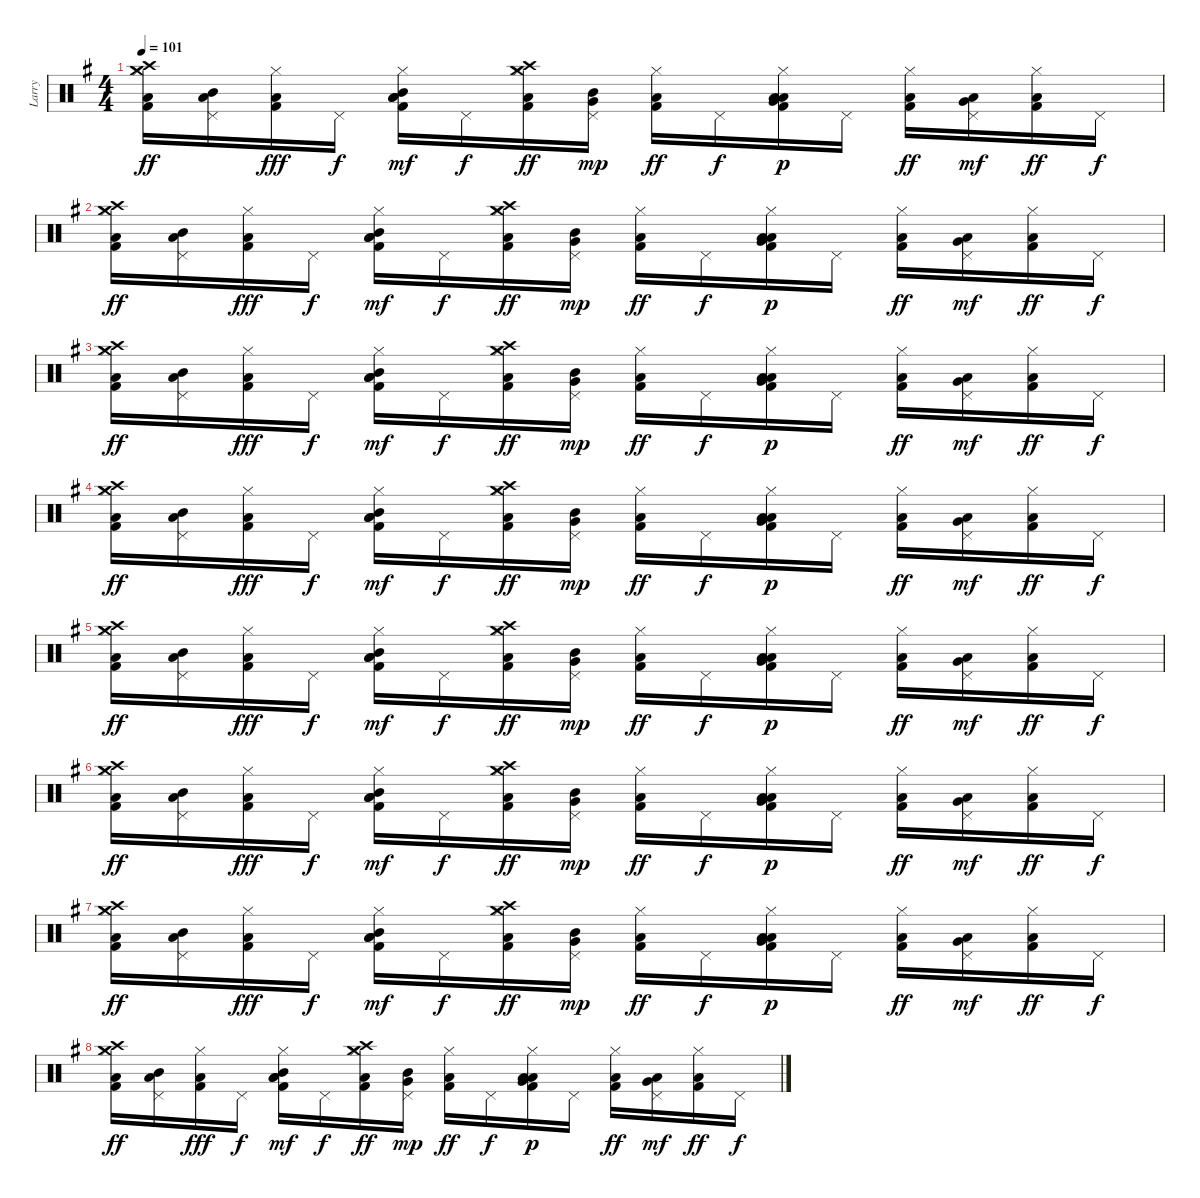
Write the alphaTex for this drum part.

\track ("Larry" "Larry") {instrument percussion}
\staff {score}
\articulation defaults
\ts (4 4)
\tempo 101
\clef neutral
\ks eminor
("Kick (hit) 2" "Low Floor Tom (hit)" "Crash high (hit)" "Crash medium (hit)" "Hi-Hat (closed)").16{dy ff} ("Low Tom (hit)" "Mid Tom (hit)" "Pedal Hi-Hat (hit)").16 ("Kick (hit) 2" "Low Floor Tom (hit)" "Hi-Hat (closed)").16{dy fff} "Pedal Hi-Hat (hit)".16{dy f} ("Kick (hit) 2" "Low Floor Tom (hit)" "Low Tom (hit)" "Mid Tom (hit)" "Hi-Hat (closed)").16{dy mf} "Pedal Hi-Hat (hit)".16{dy f} ("Kick (hit) 2" "Low Floor Tom (hit)" "Crash high (hit)" "Crash medium (hit)" "Hi-Hat (closed)").16{dy ff} ("Very Low Tom (hit)" "Mid Tom (hit)" "Pedal Hi-Hat (hit)").16{dy mp} ("Low Floor Tom (hit)" "Kick (hit) 2" "Hi-Hat (closed)").16{dy ff} "Pedal Hi-Hat (hit)".16{dy f} ("Low Floor Tom (hit)" "Kick (hit) 2" "Very Low Tom (hit)" "Low Tom (hit)" "Hi-Hat (closed)").16{dy p} "Pedal Hi-Hat (hit)".16 ("Low Floor Tom (hit)" "Kick (hit) 2" "Hi-Hat (closed)").16{dy ff} ("Very Low Tom (hit)" "Low Tom (hit)" "Pedal Hi-Hat (hit)").16{dy mf} ("Low Floor Tom (hit)" "Kick (hit) 2" "Hi-Hat (closed)").16{dy ff} "Pedal Hi-Hat (hit)".16{dy f} |
("Kick (hit) 2" "Low Floor Tom (hit)" "Crash high (hit)" "Crash medium (hit)" "Hi-Hat (closed)").16{dy ff} ("Low Tom (hit)" "Mid Tom (hit)" "Pedal Hi-Hat (hit)").16 ("Kick (hit) 2" "Low Floor Tom (hit)" "Hi-Hat (closed)").16{dy fff} "Pedal Hi-Hat (hit)".16{dy f} ("Kick (hit) 2" "Low Floor Tom (hit)" "Low Tom (hit)" "Mid Tom (hit)" "Hi-Hat (closed)").16{dy mf} "Pedal Hi-Hat (hit)".16{dy f} ("Kick (hit) 2" "Low Floor Tom (hit)" "Crash high (hit)" "Crash medium (hit)" "Hi-Hat (closed)").16{dy ff} ("Very Low Tom (hit)" "Mid Tom (hit)" "Pedal Hi-Hat (hit)").16{dy mp} ("Low Floor Tom (hit)" "Kick (hit) 2" "Hi-Hat (closed)").16{dy ff} "Pedal Hi-Hat (hit)".16{dy f} ("Low Floor Tom (hit)" "Kick (hit) 2" "Very Low Tom (hit)" "Low Tom (hit)" "Hi-Hat (closed)").16{dy p} "Pedal Hi-Hat (hit)".16 ("Low Floor Tom (hit)" "Kick (hit) 2" "Hi-Hat (closed)").16{dy ff} ("Very Low Tom (hit)" "Low Tom (hit)" "Pedal Hi-Hat (hit)").16{dy mf} ("Low Floor Tom (hit)" "Kick (hit) 2" "Hi-Hat (closed)").16{dy ff} "Pedal Hi-Hat (hit)".16{dy f} |
("Kick (hit) 2" "Low Floor Tom (hit)" "Crash high (hit)" "Crash medium (hit)" "Hi-Hat (closed)").16{dy ff} ("Low Tom (hit)" "Mid Tom (hit)" "Pedal Hi-Hat (hit)").16 ("Kick (hit) 2" "Low Floor Tom (hit)" "Hi-Hat (closed)").16{dy fff} "Pedal Hi-Hat (hit)".16{dy f} ("Kick (hit) 2" "Low Floor Tom (hit)" "Low Tom (hit)" "Mid Tom (hit)" "Hi-Hat (closed)").16{dy mf} "Pedal Hi-Hat (hit)".16{dy f} ("Kick (hit) 2" "Low Floor Tom (hit)" "Crash high (hit)" "Crash medium (hit)" "Hi-Hat (closed)").16{dy ff} ("Very Low Tom (hit)" "Mid Tom (hit)" "Pedal Hi-Hat (hit)").16{dy mp} ("Low Floor Tom (hit)" "Kick (hit) 2" "Hi-Hat (closed)").16{dy ff} "Pedal Hi-Hat (hit)".16{dy f} ("Low Floor Tom (hit)" "Kick (hit) 2" "Very Low Tom (hit)" "Low Tom (hit)" "Hi-Hat (closed)").16{dy p} "Pedal Hi-Hat (hit)".16 ("Low Floor Tom (hit)" "Kick (hit) 2" "Hi-Hat (closed)").16{dy ff} ("Very Low Tom (hit)" "Low Tom (hit)" "Pedal Hi-Hat (hit)").16{dy mf} ("Low Floor Tom (hit)" "Kick (hit) 2" "Hi-Hat (closed)").16{dy ff} "Pedal Hi-Hat (hit)".16{dy f} |
("Kick (hit) 2" "Low Floor Tom (hit)" "Crash high (hit)" "Crash medium (hit)" "Hi-Hat (closed)").16{dy ff} ("Low Tom (hit)" "Mid Tom (hit)" "Pedal Hi-Hat (hit)").16 ("Kick (hit) 2" "Low Floor Tom (hit)" "Hi-Hat (closed)").16{dy fff} "Pedal Hi-Hat (hit)".16{dy f} ("Kick (hit) 2" "Low Floor Tom (hit)" "Low Tom (hit)" "Mid Tom (hit)" "Hi-Hat (closed)").16{dy mf} "Pedal Hi-Hat (hit)".16{dy f} ("Kick (hit) 2" "Low Floor Tom (hit)" "Crash high (hit)" "Crash medium (hit)" "Hi-Hat (closed)").16{dy ff} ("Very Low Tom (hit)" "Mid Tom (hit)" "Pedal Hi-Hat (hit)").16{dy mp} ("Low Floor Tom (hit)" "Kick (hit) 2" "Hi-Hat (closed)").16{dy ff} "Pedal Hi-Hat (hit)".16{dy f} ("Low Floor Tom (hit)" "Kick (hit) 2" "Very Low Tom (hit)" "Low Tom (hit)" "Hi-Hat (closed)").16{dy p} "Pedal Hi-Hat (hit)".16 ("Low Floor Tom (hit)" "Kick (hit) 2" "Hi-Hat (closed)").16{dy ff} ("Very Low Tom (hit)" "Low Tom (hit)" "Pedal Hi-Hat (hit)").16{dy mf} ("Low Floor Tom (hit)" "Kick (hit) 2" "Hi-Hat (closed)").16{dy ff} "Pedal Hi-Hat (hit)".16{dy f} |
("Kick (hit) 2" "Low Floor Tom (hit)" "Crash high (hit)" "Crash medium (hit)" "Hi-Hat (closed)").16{dy ff} ("Low Tom (hit)" "Mid Tom (hit)" "Pedal Hi-Hat (hit)").16 ("Kick (hit) 2" "Low Floor Tom (hit)" "Hi-Hat (closed)").16{dy fff} "Pedal Hi-Hat (hit)".16{dy f} ("Kick (hit) 2" "Low Floor Tom (hit)" "Low Tom (hit)" "Mid Tom (hit)" "Hi-Hat (closed)").16{dy mf} "Pedal Hi-Hat (hit)".16{dy f} ("Kick (hit) 2" "Low Floor Tom (hit)" "Crash high (hit)" "Crash medium (hit)" "Hi-Hat (closed)").16{dy ff} ("Very Low Tom (hit)" "Mid Tom (hit)" "Pedal Hi-Hat (hit)").16{dy mp} ("Low Floor Tom (hit)" "Kick (hit) 2" "Hi-Hat (closed)").16{dy ff} "Pedal Hi-Hat (hit)".16{dy f} ("Low Floor Tom (hit)" "Kick (hit) 2" "Very Low Tom (hit)" "Low Tom (hit)" "Hi-Hat (closed)").16{dy p} "Pedal Hi-Hat (hit)".16 ("Low Floor Tom (hit)" "Kick (hit) 2" "Hi-Hat (closed)").16{dy ff} ("Very Low Tom (hit)" "Low Tom (hit)" "Pedal Hi-Hat (hit)").16{dy mf} ("Low Floor Tom (hit)" "Kick (hit) 2" "Hi-Hat (closed)").16{dy ff} "Pedal Hi-Hat (hit)".16{dy f} |
("Kick (hit) 2" "Low Floor Tom (hit)" "Crash high (hit)" "Crash medium (hit)" "Hi-Hat (closed)").16{dy ff} ("Low Tom (hit)" "Mid Tom (hit)" "Pedal Hi-Hat (hit)").16 ("Kick (hit) 2" "Low Floor Tom (hit)" "Hi-Hat (closed)").16{dy fff} "Pedal Hi-Hat (hit)".16{dy f} ("Kick (hit) 2" "Low Floor Tom (hit)" "Low Tom (hit)" "Mid Tom (hit)" "Hi-Hat (closed)").16{dy mf} "Pedal Hi-Hat (hit)".16{dy f} ("Kick (hit) 2" "Low Floor Tom (hit)" "Crash high (hit)" "Crash medium (hit)" "Hi-Hat (closed)").16{dy ff} ("Very Low Tom (hit)" "Mid Tom (hit)" "Pedal Hi-Hat (hit)").16{dy mp} ("Low Floor Tom (hit)" "Kick (hit) 2" "Hi-Hat (closed)").16{dy ff} "Pedal Hi-Hat (hit)".16{dy f} ("Low Floor Tom (hit)" "Kick (hit) 2" "Very Low Tom (hit)" "Low Tom (hit)" "Hi-Hat (closed)").16{dy p} "Pedal Hi-Hat (hit)".16 ("Low Floor Tom (hit)" "Kick (hit) 2" "Hi-Hat (closed)").16{dy ff} ("Very Low Tom (hit)" "Low Tom (hit)" "Pedal Hi-Hat (hit)").16{dy mf} ("Low Floor Tom (hit)" "Kick (hit) 2" "Hi-Hat (closed)").16{dy ff} "Pedal Hi-Hat (hit)".16{dy f} |
("Kick (hit) 2" "Low Floor Tom (hit)" "Crash high (hit)" "Crash medium (hit)" "Hi-Hat (closed)").16{dy ff} ("Low Tom (hit)" "Mid Tom (hit)" "Pedal Hi-Hat (hit)").16 ("Kick (hit) 2" "Low Floor Tom (hit)" "Hi-Hat (closed)").16{dy fff} "Pedal Hi-Hat (hit)".16{dy f} ("Kick (hit) 2" "Low Floor Tom (hit)" "Low Tom (hit)" "Mid Tom (hit)" "Hi-Hat (closed)").16{dy mf} "Pedal Hi-Hat (hit)".16{dy f} ("Kick (hit) 2" "Low Floor Tom (hit)" "Crash high (hit)" "Crash medium (hit)" "Hi-Hat (closed)").16{dy ff} ("Very Low Tom (hit)" "Mid Tom (hit)" "Pedal Hi-Hat (hit)").16{dy mp} ("Low Floor Tom (hit)" "Kick (hit) 2" "Hi-Hat (closed)").16{dy ff} "Pedal Hi-Hat (hit)".16{dy f} ("Low Floor Tom (hit)" "Kick (hit) 2" "Very Low Tom (hit)" "Low Tom (hit)" "Hi-Hat (closed)").16{dy p} "Pedal Hi-Hat (hit)".16 ("Low Floor Tom (hit)" "Kick (hit) 2" "Hi-Hat (closed)").16{dy ff} ("Very Low Tom (hit)" "Low Tom (hit)" "Pedal Hi-Hat (hit)").16{dy mf} ("Low Floor Tom (hit)" "Kick (hit) 2" "Hi-Hat (closed)").16{dy ff} "Pedal Hi-Hat (hit)".16{dy f} |
("Kick (hit) 2" "Low Floor Tom (hit)" "Crash high (hit)" "Crash medium (hit)" "Hi-Hat (closed)").16{dy ff} ("Low Tom (hit)" "Mid Tom (hit)" "Pedal Hi-Hat (hit)").16 ("Kick (hit) 2" "Low Floor Tom (hit)" "Hi-Hat (closed)").16{dy fff} "Pedal Hi-Hat (hit)".16{dy f} ("Kick (hit) 2" "Low Floor Tom (hit)" "Low Tom (hit)" "Mid Tom (hit)" "Hi-Hat (closed)").16{dy mf} "Pedal Hi-Hat (hit)".16{dy f} ("Kick (hit) 2" "Low Floor Tom (hit)" "Crash high (hit)" "Crash medium (hit)" "Hi-Hat (closed)").16{dy ff} ("Very Low Tom (hit)" "Mid Tom (hit)" "Pedal Hi-Hat (hit)").16{dy mp} ("Low Floor Tom (hit)" "Kick (hit) 2" "Hi-Hat (closed)").16{dy ff} "Pedal Hi-Hat (hit)".16{dy f} ("Low Floor Tom (hit)" "Kick (hit) 2" "Very Low Tom (hit)" "Low Tom (hit)" "Hi-Hat (closed)").16{dy p} "Pedal Hi-Hat (hit)".16 ("Low Floor Tom (hit)" "Kick (hit) 2" "Hi-Hat (closed)").16{dy ff} ("Very Low Tom (hit)" "Low Tom (hit)" "Pedal Hi-Hat (hit)").16{dy mf} ("Low Floor Tom (hit)" "Kick (hit) 2" "Hi-Hat (closed)").16{dy ff} "Pedal Hi-Hat (hit)".16{dy f}
